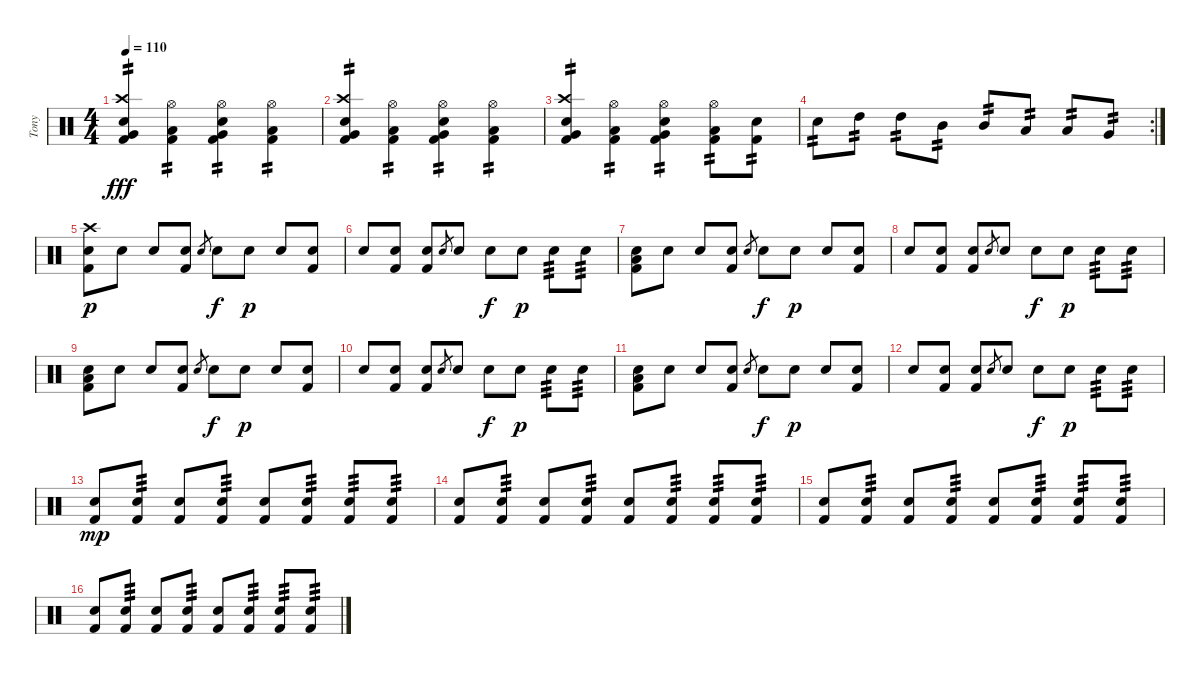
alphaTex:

\track ("Tony" "Tony") {instrument percussion}
\staff {score}
\articulation defaults
\ts (4 4)
\tempo 110
\clef neutral
\ks c
("Very Low Tom (hit)" "Crash high (hit)" "Snare (hit) 2" "Kick (hit) 2").4{tp 2 dy fff} ("Low Floor Tom (hit)" "Hi-Hat (open)" "Kick (hit) 2").4{tp 2} ("Very Low Tom (hit)" "Hi-Hat (open)" "Snare (hit) 2" "Kick (hit) 2").4{tp 2} ("Low Floor Tom (hit)" "Hi-Hat (open)" "Kick (hit) 2").4{tp 2} |
("Very Low Tom (hit)" "Crash high (hit)" "Snare (hit) 2" "Kick (hit) 2").4{tp 2} ("Low Floor Tom (hit)" "Hi-Hat (open)" "Kick (hit) 2").4{tp 2} ("Very Low Tom (hit)" "Hi-Hat (open)" "Snare (hit) 2" "Kick (hit) 2").4{tp 2} ("Low Floor Tom (hit)" "Hi-Hat (open)" "Kick (hit) 2").4{tp 2} |
("Very Low Tom (hit)" "Crash high (hit)" "Snare (hit) 2" "Kick (hit) 2").4{tp 2} ("Low Floor Tom (hit)" "Hi-Hat (open)" "Kick (hit) 2").4{tp 2} ("Very Low Tom (hit)" "Hi-Hat (open)" "Snare (hit) 2" "Kick (hit) 2").4{tp 2} ("Low Floor Tom (hit)" "Hi-Hat (open)" "Kick (hit) 2").8{tp 2} ("Snare (hit) 2" "Kick (hit) 2").8{tp 2} |
\rc 2 "Snare (hit) 2".8{tp 2} "High Tom (hit)".8{tp 2} "High Tom (hit)".8{tp 2} "Mid Tom (hit)".8{tp 2} "Mid Tom (hit)".8{tp 2} "Low Tom (hit)".8{tp 2} "Low Tom (hit)".8{tp 2} "Very Low Tom (hit)".8{tp 2}
|
("Crash high (hit)" "Kick (hit) 2" "Snare (hit) 2").8{dy p} "Snare (hit) 2".8 "Snare (hit) 2".8 ("Kick (hit) 2" "Snare (hit) 2").8 "Snare (hit) 2".8{gr} "Snare (hit) 2".8{dy f} "Snare (hit) 2".8{dy p} "Snare (hit) 2".8 ("Kick (hit) 2" "Snare (hit) 2").8 |
"Snare (hit) 2".8 ("Kick (hit) 2" "Snare (hit) 2").8 ("Kick (hit) 2" "Snare (hit) 2").8 "Snare (hit) 2".8{gr} "Snare (hit) 2".8 "Snare (hit) 2".8{dy f} "Snare (hit) 2".8{dy p} "Snare (hit) 2".8{tp 3} "Snare (hit) 2".8{tp 3} |
("Low Floor Tom (hit)" "Kick (hit) 2" "Snare (hit) 2").8 "Snare (hit) 2".8 "Snare (hit) 2".8 ("Kick (hit) 2" "Snare (hit) 2").8 "Snare (hit) 2".8{gr} "Snare (hit) 2".8{dy f} "Snare (hit) 2".8{dy p} "Snare (hit) 2".8 ("Kick (hit) 2" "Snare (hit) 2").8 |
"Snare (hit) 2".8 ("Kick (hit) 2" "Snare (hit) 2").8 ("Kick (hit) 2" "Snare (hit) 2").8 "Snare (hit) 2".8{gr} "Snare (hit) 2".8 "Snare (hit) 2".8{dy f} "Snare (hit) 2".8{dy p} "Snare (hit) 2".8{tp 3} "Snare (hit) 2".8{tp 3} |
("Low Floor Tom (hit)" "Kick (hit) 2" "Snare (hit) 2").8 "Snare (hit) 2".8 "Snare (hit) 2".8 ("Kick (hit) 2" "Snare (hit) 2").8 "Snare (hit) 2".8{gr} "Snare (hit) 2".8{dy f} "Snare (hit) 2".8{dy p} "Snare (hit) 2".8 ("Kick (hit) 2" "Snare (hit) 2").8 |
"Snare (hit) 2".8 ("Kick (hit) 2" "Snare (hit) 2").8 ("Kick (hit) 2" "Snare (hit) 2").8 "Snare (hit) 2".8{gr} "Snare (hit) 2".8 "Snare (hit) 2".8{dy f} "Snare (hit) 2".8{dy p} "Snare (hit) 2".8{tp 3} "Snare (hit) 2".8{tp 3} |
("Low Floor Tom (hit)" "Kick (hit) 2" "Snare (hit) 2").8 "Snare (hit) 2".8 "Snare (hit) 2".8 ("Kick (hit) 2" "Snare (hit) 2").8 "Snare (hit) 2".8{gr} "Snare (hit) 2".8{dy f} "Snare (hit) 2".8{dy p} "Snare (hit) 2".8 ("Kick (hit) 2" "Snare (hit) 2").8 |
"Snare (hit) 2".8 ("Kick (hit) 2" "Snare (hit) 2").8 ("Kick (hit) 2" "Snare (hit) 2").8 "Snare (hit) 2".8{gr} "Snare (hit) 2".8 "Snare (hit) 2".8{dy f} "Snare (hit) 2".8{dy p} "Snare (hit) 2".8{tp 3} "Snare (hit) 2".8{tp 3} |
("Snare (hit) 2" "Kick (hit) 2").8{dy mp} ("Snare (hit) 2" "Kick (hit) 2").8{tp 3} ("Snare (hit) 2" "Kick (hit) 2").8 ("Snare (hit) 2" "Kick (hit) 2").8{tp 3} ("Snare (hit) 2" "Kick (hit) 2").8 ("Snare (hit) 2" "Kick (hit) 2").8{tp 3} ("Snare (hit) 2" "Kick (hit) 2").8{tp 3} ("Snare (hit) 2" "Kick (hit) 2").8{tp 3} |
("Snare (hit) 2" "Kick (hit) 2").8 ("Snare (hit) 2" "Kick (hit) 2").8{tp 3} ("Snare (hit) 2" "Kick (hit) 2").8 ("Snare (hit) 2" "Kick (hit) 2").8{tp 3} ("Snare (hit) 2" "Kick (hit) 2").8 ("Snare (hit) 2" "Kick (hit) 2").8{tp 3} ("Snare (hit) 2" "Kick (hit) 2").8{tp 3} ("Snare (hit) 2" "Kick (hit) 2").8{tp 3} |
("Snare (hit) 2" "Kick (hit) 2").8 ("Snare (hit) 2" "Kick (hit) 2").8{tp 3} ("Snare (hit) 2" "Kick (hit) 2").8 ("Snare (hit) 2" "Kick (hit) 2").8{tp 3} ("Snare (hit) 2" "Kick (hit) 2").8 ("Snare (hit) 2" "Kick (hit) 2").8{tp 3} ("Snare (hit) 2" "Kick (hit) 2").8{tp 3} ("Snare (hit) 2" "Kick (hit) 2").8{tp 3} |
("Snare (hit) 2" "Kick (hit) 2").8 ("Snare (hit) 2" "Kick (hit) 2").8{tp 3} ("Snare (hit) 2" "Kick (hit) 2").8 ("Snare (hit) 2" "Kick (hit) 2").8{tp 3} ("Snare (hit) 2" "Kick (hit) 2").8 ("Snare (hit) 2" "Kick (hit) 2").8{tp 3} ("Snare (hit) 2" "Kick (hit) 2").8{tp 3} ("Snare (hit) 2" "Kick (hit) 2").8{tp 3}
